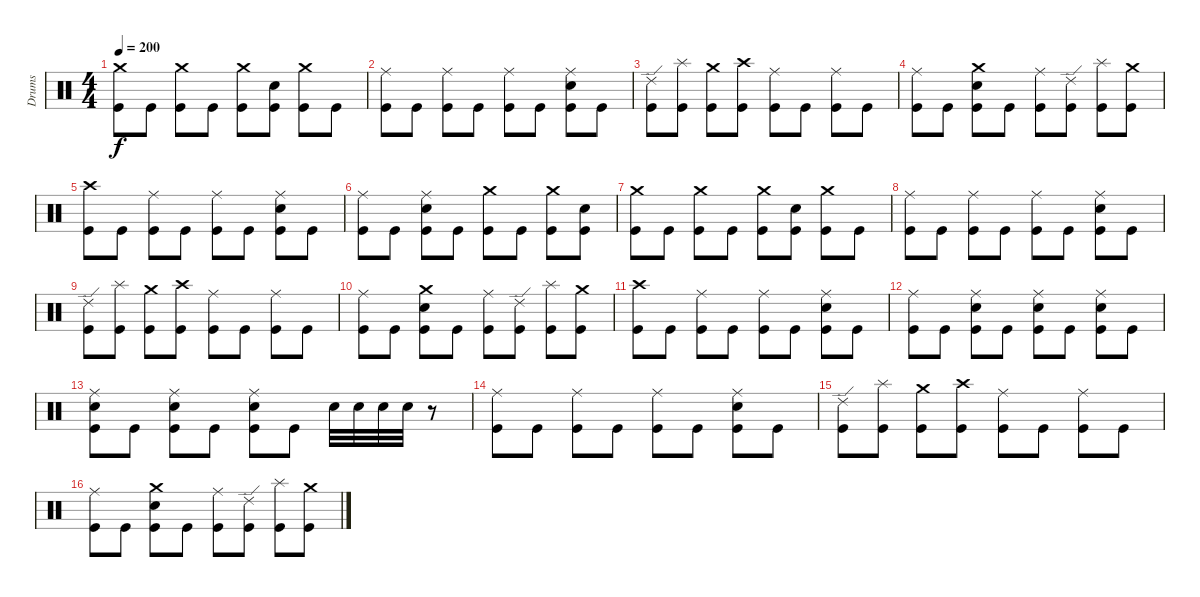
\track ("Drums" "Drums") {instrument percussion}
\staff {score}
\articulation defaults
\ts (4 4)
\tempo 200
\clef neutral
\ks c
("Crash medium (hit)" "Kick (hit)").8{dy f} "Kick (hit)".8 ("Crash medium (hit)" "Kick (hit)").8 "Kick (hit)".8 ("Crash medium (hit)" "Kick (hit)").8 ("Snare (hit) 2" "Kick (hit)").8 ("Crash medium (hit)" "Kick (hit)").8 "Kick (hit)".8 |
("Ride (middle)" "Kick (hit)").8 "Kick (hit)".8 ("Ride (middle)" "Kick (hit)").8 "Kick (hit)".8 ("Ride (middle)" "Kick (hit)").8 "Kick (hit)".8 ("Ride (middle)" "Snare (hit) 2" "Kick (hit)").8 "Kick (hit)".8 |
("Ride (edge) 2" "Kick (hit)").8 ("Splash (hit)" "Kick (hit)").8 ("Crash medium (hit)" "Kick (hit)").8 ("Crash high (hit)" "Kick (hit)").8 ("Ride (middle)" "Kick (hit)").8 "Kick (hit)".8 ("Ride (middle)" "Kick (hit)").8 "Kick (hit)".8 |
("Ride (middle)" "Kick (hit)").8 "Kick (hit)".8 ("Crash medium (hit)" "Snare (hit) 2" "Kick (hit)").8 "Kick (hit)".8 ("Ride (middle)" "Kick (hit)").8 ("Ride (edge) 2" "Kick (hit)").8 ("Splash (hit)" "Kick (hit)").8 ("Crash medium (hit)" "Kick (hit)").8 |
("Crash high (hit)" "Kick (hit)").8 "Kick (hit)".8 ("Ride (middle)" "Kick (hit)").8 "Kick (hit)".8 ("Ride (middle)" "Kick (hit)").8 "Kick (hit)".8 ("Ride (middle)" "Snare (hit) 2" "Kick (hit)").8 "Kick (hit)".8 |
("Ride (middle)" "Kick (hit)").8 "Kick (hit)".8 ("Ride (middle)" "Snare (hit) 2" "Kick (hit)").8 "Kick (hit)".8 ("Crash medium (hit)" "Kick (hit)").8 "Kick (hit)".8 ("Crash medium (hit)" "Kick (hit)").8 ("Snare (hit) 2" "Kick (hit)").8 |
("Crash medium (hit)" "Kick (hit)").8 "Kick (hit)".8 ("Crash medium (hit)" "Kick (hit)").8 "Kick (hit)".8 ("Crash medium (hit)" "Kick (hit)").8 ("Snare (hit) 2" "Kick (hit)").8 ("Crash medium (hit)" "Kick (hit)").8 "Kick (hit)".8 |
("Ride (middle)" "Kick (hit)").8 "Kick (hit)".8 ("Ride (middle)" "Kick (hit)").8 "Kick (hit)".8 ("Ride (middle)" "Kick (hit)").8 "Kick (hit)".8 ("Ride (middle)" "Snare (hit) 2" "Kick (hit)").8 "Kick (hit)".8 |
("Ride (edge) 2" "Kick (hit)").8 ("Splash (hit)" "Kick (hit)").8 ("Crash medium (hit)" "Kick (hit)").8 ("Crash high (hit)" "Kick (hit)").8 ("Ride (middle)" "Kick (hit)").8 "Kick (hit)".8 ("Ride (middle)" "Kick (hit)").8 "Kick (hit)".8 |
("Ride (middle)" "Kick (hit)").8 "Kick (hit)".8 ("Crash medium (hit)" "Snare (hit) 2" "Kick (hit)").8 "Kick (hit)".8 ("Ride (middle)" "Kick (hit)").8 ("Ride (edge) 2" "Kick (hit)").8 ("Splash (hit)" "Kick (hit)").8 ("Crash medium (hit)" "Kick (hit)").8 |
("Crash high (hit)" "Kick (hit)").8 "Kick (hit)".8 ("Ride (middle)" "Kick (hit)").8 "Kick (hit)".8 ("Ride (middle)" "Kick (hit)").8 "Kick (hit)".8 ("Ride (middle)" "Snare (hit) 2" "Kick (hit)").8 "Kick (hit)".8 |
("Ride (middle)" "Kick (hit)").8 "Kick (hit)".8 ("Ride (middle)" "Snare (hit) 2" "Kick (hit)").8 "Kick (hit)".8 ("Ride (middle)" "Snare (hit) 2" "Kick (hit)").8 "Kick (hit)".8 ("Ride (middle)" "Snare (hit) 2" "Kick (hit)").8 "Kick (hit)".8 |
("Ride (middle)" "Snare (hit) 2" "Kick (hit)").8 "Kick (hit)".8 ("Ride (middle)" "Snare (hit) 2" "Kick (hit)").8 "Kick (hit)".8 ("Ride (middle)" "Snare (hit) 2" "Kick (hit)").8 "Kick (hit)".8 "Snare (hit) 2".32 "Snare (hit) 2".32 "Snare (hit) 2".32 "Snare (hit) 2".32 r.8 |
("Ride (middle)" "Kick (hit)").8 "Kick (hit)".8 ("Ride (middle)" "Kick (hit)").8 "Kick (hit)".8 ("Ride (middle)" "Kick (hit)").8 "Kick (hit)".8 ("Ride (middle)" "Snare (hit) 2" "Kick (hit)").8 "Kick (hit)".8 |
("Ride (edge) 2" "Kick (hit)").8 ("Splash (hit)" "Kick (hit)").8 ("Crash medium (hit)" "Kick (hit)").8 ("Crash high (hit)" "Kick (hit)").8 ("Ride (middle)" "Kick (hit)").8 "Kick (hit)".8 ("Ride (middle)" "Kick (hit)").8 "Kick (hit)".8 |
("Ride (middle)" "Kick (hit)").8 "Kick (hit)".8 ("Crash medium (hit)" "Snare (hit) 2" "Kick (hit)").8 "Kick (hit)".8 ("Ride (middle)" "Kick (hit)").8 ("Ride (edge) 2" "Kick (hit)").8 ("Splash (hit)" "Kick (hit)").8 ("Crash medium (hit)" "Kick (hit)").8
